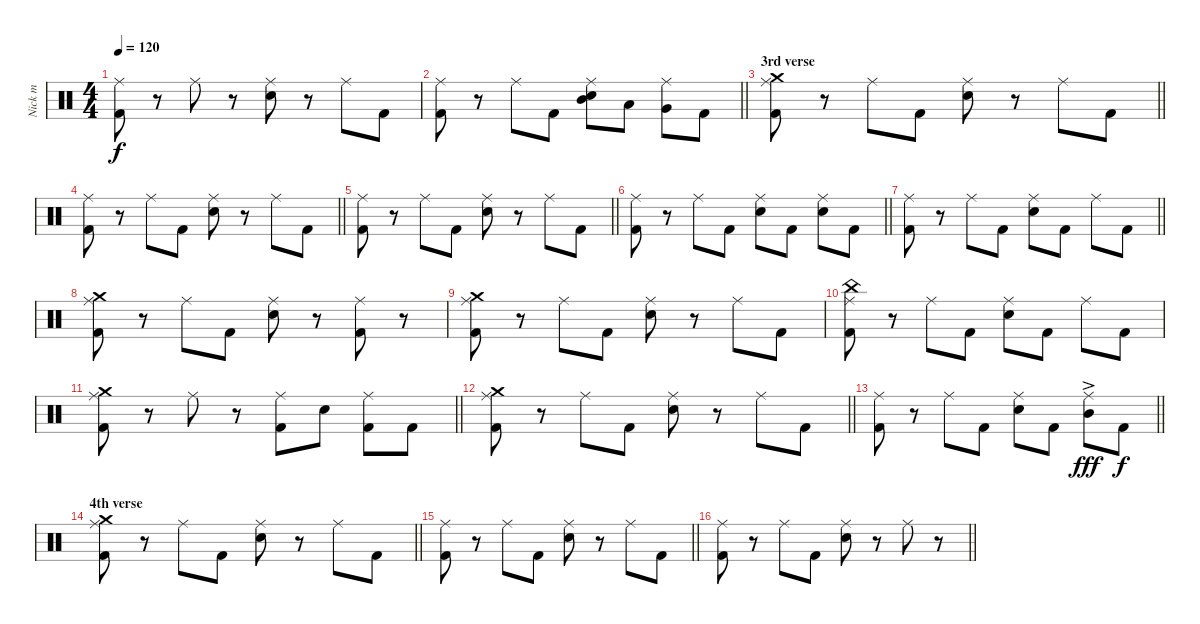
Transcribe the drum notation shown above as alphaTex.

\track ("Nick m" "Nick m") {instrument percussion}
\staff {score}
\articulation defaults
\ts (4 4)
\tempo 120
\clef neutral
\ks c
("Ride (middle)" "Kick (hit) 2").8{dy f} r.8 "Ride (middle)".8 r.8 ("Ride (middle)" "Snare (hit) 2").8 r.8 "Ride (middle)".8 "Kick (hit) 2".8 |
\barLineRight lightlight
("Ride (middle)" "Kick (hit) 2").8 r.8 "Ride (middle)".8 "Kick (hit) 2".8 ("Ride (middle)" "Mid Tom (hit)" "Snare (hit) 2").8 "Low Tom (hit)".8 ("Ride (middle)" "Very Low Tom (hit)").8 "Kick (hit) 2".8 |
\section ("" "3rd verse")
\barLineRight lightlight
("Crash medium (hit)" "Ride (middle)" "Kick (hit) 2").8 r.8 "Ride (middle)".8 "Kick (hit) 2".8 ("Ride (middle)" "Snare (hit) 2").8 r.8 "Ride (middle)".8 "Kick (hit) 2".8 |
\barLineRight lightlight
("Ride (middle)" "Kick (hit) 2").8 r.8 "Ride (middle)".8 "Kick (hit) 2".8 ("Ride (middle)" "Snare (hit) 2").8 r.8 "Ride (middle)".8 "Kick (hit) 2".8 |
\barLineRight lightlight
("Ride (middle)" "Kick (hit) 2").8 r.8 "Ride (middle)".8 "Kick (hit) 2".8 ("Ride (middle)" "Snare (hit) 2").8 r.8 "Ride (middle)".8 "Kick (hit) 2".8 |
\barLineRight lightlight
("Ride (middle)" "Kick (hit) 2").8 r.8 "Ride (middle)".8 "Kick (hit) 2".8 ("Ride (middle)" "Snare (hit) 2").8 "Kick (hit) 2".8 ("Ride (middle)" "Snare (hit) 2").8 "Kick (hit) 2".8 |
\barLineRight lightlight
("Ride (middle)" "Kick (hit) 2").8 r.8 "Ride (middle)".8 "Kick (hit) 2".8 ("Ride (middle)" "Snare (hit) 2").8 "Kick (hit) 2".8 "Ride (middle)".8 "Kick (hit) 2".8 |
("Crash medium (hit)" "Ride (middle)" "Kick (hit) 2").8 r.8 "Ride (middle)".8 "Kick (hit) 2".8 ("Ride (middle)" "Snare (hit) 2").8 r.8 ("Ride (middle)" "Kick (hit) 2").8 r.8 |
("Ride (middle)" "Crash medium (hit)" "Kick (hit) 2").8 r.8 "Ride (middle)".8 "Kick (hit) 2".8 ("Ride (middle)" "Snare (hit) 2").8 r.8 "Ride (middle)".8 "Kick (hit) 2".8 |
("Ride (middle)" "China (hit)" "Kick (hit) 2").8 r.8 "Ride (middle)".8 "Kick (hit) 2".8 ("Ride (middle)" "Snare (hit) 2").8 "Kick (hit) 2".8 "Ride (middle)".8 "Kick (hit) 2".8 |
\barLineRight lightlight
("Crash medium (hit)" "Ride (middle)" "Kick (hit) 2").8 r.8 "Ride (middle)".8 r.8 ("Ride (middle)" "Kick (hit) 2").8 "Snare (hit) 2".8 ("Ride (middle)" "Kick (hit) 2").8 "Kick (hit) 2".8 |
\barLineRight lightlight
("Crash medium (hit)" "Ride (middle)" "Kick (hit) 2").8 r.8 "Ride (middle)".8 "Kick (hit) 2".8 ("Ride (middle)" "Snare (hit) 2").8 r.8 "Ride (middle)".8 "Kick (hit) 2".8 |
\barLineRight lightlight
("Ride (middle)" "Kick (hit) 2").8 r.8 "Ride (middle)".8 "Kick (hit) 2".8 ("Ride (middle)" "Snare (hit) 2").8 "Kick (hit) 2".8 ("Ride (middle)" "Mid Tom (hit)"{ac}).8{dy fff} "Kick (hit) 2".8{dy f} |
\section ("" "4th verse")
\barLineRight lightlight
("Crash medium (hit)" "Ride (middle)" "Kick (hit) 2").8 r.8 "Ride (middle)".8 "Kick (hit) 2".8 ("Ride (middle)" "Snare (hit) 2").8 r.8 "Ride (middle)".8 "Kick (hit) 2".8 |
\barLineRight lightlight
("Ride (middle)" "Kick (hit) 2").8 r.8 "Ride (middle)".8 "Kick (hit) 2".8 ("Ride (middle)" "Snare (hit) 2").8 r.8 "Ride (middle)".8 "Kick (hit) 2".8 |
\barLineRight lightlight
("Ride (middle)" "Kick (hit) 2").8 r.8 "Ride (middle)".8 "Kick (hit) 2".8 ("Ride (middle)" "Snare (hit) 2").8 r.8 "Ride (middle)".8 r.8
